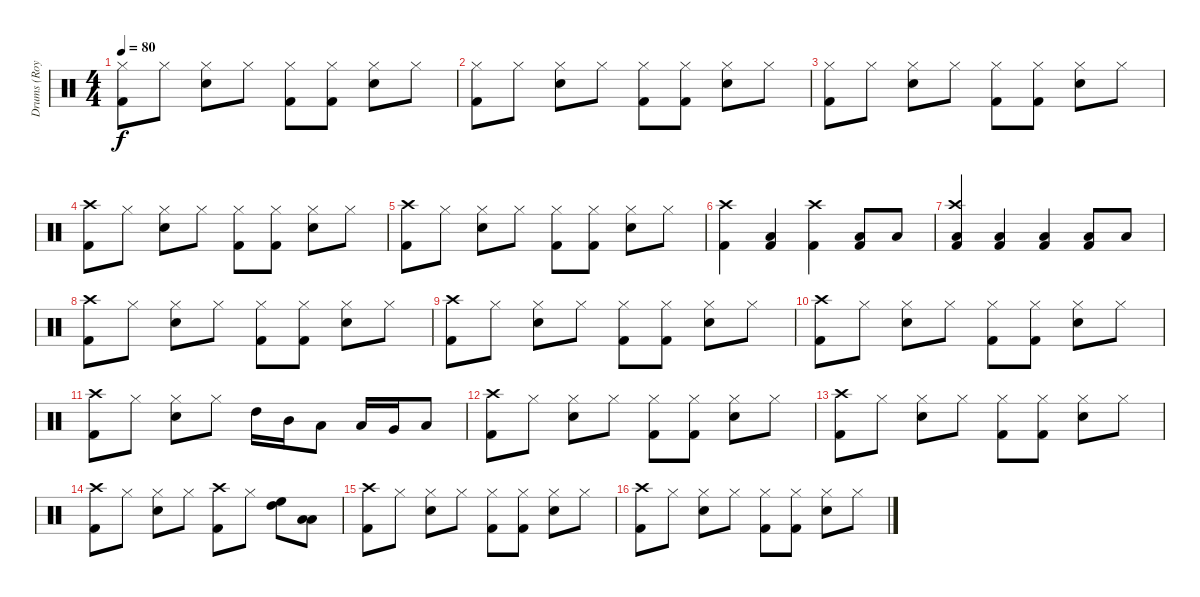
\track ("Drums (Roy Mayorga)" "Drums (Roy") {instrument percussion}
\staff {score}
\articulation defaults
\ts (4 4)
\tempo 80
\clef neutral
\ks c
("Hi-Hat (closed)" "Kick (hit) 2").8{dy f} "Hi-Hat (closed)".8 ("Hi-Hat (closed)" "Snare (hit) 2").8 "Hi-Hat (closed)".8 ("Hi-Hat (closed)" "Kick (hit) 2").8 ("Hi-Hat (closed)" "Kick (hit) 2").8 ("Hi-Hat (closed)" "Snare (hit) 2").8 "Hi-Hat (closed)".8 |
("Hi-Hat (closed)" "Kick (hit) 2").8 "Hi-Hat (closed)".8 ("Hi-Hat (closed)" "Snare (hit) 2").8 "Hi-Hat (closed)".8 ("Hi-Hat (closed)" "Kick (hit) 2").8 ("Hi-Hat (closed)" "Kick (hit) 2").8 ("Hi-Hat (closed)" "Snare (hit) 2").8 "Hi-Hat (closed)".8 |
("Hi-Hat (closed)" "Kick (hit) 2").8 "Hi-Hat (closed)".8 ("Hi-Hat (closed)" "Snare (hit) 2").8 "Hi-Hat (closed)".8 ("Hi-Hat (closed)" "Kick (hit) 2").8 ("Hi-Hat (closed)" "Kick (hit) 2").8 ("Hi-Hat (closed)" "Snare (hit) 2").8 "Hi-Hat (closed)".8 |
("Crash high (hit)" "Kick (hit) 2").8 "Hi-Hat (closed)".8 ("Hi-Hat (closed)" "Snare (hit) 2").8 "Hi-Hat (closed)".8 ("Hi-Hat (closed)" "Kick (hit) 2").8 ("Hi-Hat (closed)" "Kick (hit) 2").8 ("Hi-Hat (closed)" "Snare (hit) 2").8 "Hi-Hat (closed)".8 |
("Crash high (hit)" "Kick (hit) 2").8 "Hi-Hat (closed)".8 ("Hi-Hat (closed)" "Snare (hit) 2").8 "Hi-Hat (closed)".8 ("Hi-Hat (closed)" "Kick (hit) 2").8 ("Hi-Hat (closed)" "Kick (hit) 2").8 ("Hi-Hat (closed)" "Snare (hit) 2").8 "Hi-Hat (closed)".8 |
("Crash high (hit)" "Kick (hit) 2").4 ("Low Tom (hit)" "Kick (hit) 2").4 ("Crash high (hit)" "Kick (hit) 2").4 ("Low Tom (hit)" "Kick (hit) 2").8 "Low Tom (hit)".8 |
("Crash high (hit)" "Low Tom (hit)" "Kick (hit) 2").4 ("Low Tom (hit)" "Kick (hit) 2").4 ("Low Tom (hit)" "Kick (hit) 2").4 ("Low Tom (hit)" "Kick (hit) 2").8 "Low Floor Tom (hit)".8 |
("Crash high (hit)" "Kick (hit) 2").8 "Hi-Hat (closed)".8 ("Hi-Hat (closed)" "Snare (hit) 2").8 "Hi-Hat (closed)".8 ("Hi-Hat (closed)" "Kick (hit) 2").8 ("Hi-Hat (closed)" "Kick (hit) 2").8 ("Hi-Hat (closed)" "Snare (hit) 2").8 "Hi-Hat (closed)".8 |
("Crash high (hit)" "Kick (hit) 2").8 "Hi-Hat (closed)".8 ("Hi-Hat (closed)" "Snare (hit) 2").8 "Hi-Hat (closed)".8 ("Hi-Hat (closed)" "Kick (hit) 2").8 ("Hi-Hat (closed)" "Kick (hit) 2").8 ("Hi-Hat (closed)" "Snare (hit) 2").8 "Hi-Hat (closed)".8 |
("Crash high (hit)" "Kick (hit) 2").8 "Hi-Hat (closed)".8 ("Hi-Hat (closed)" "Snare (hit) 2").8 "Hi-Hat (closed)".8 ("Hi-Hat (closed)" "Kick (hit) 2").8 ("Hi-Hat (closed)" "Kick (hit) 2").8 ("Hi-Hat (closed)" "Snare (hit) 2").8 "Hi-Hat (closed)".8 |
("Crash high (hit)" "Kick (hit) 2").8 "Hi-Hat (closed)".8 ("Hi-Hat (closed)" "Snare (hit) 2").8 "Hi-Hat (closed)".8 "High Tom (hit)".16 "Mid Tom (hit)".16 "Low Tom (hit)".8 "Low Tom (hit)".16 "Very Low Tom (hit)".16 "Low Floor Tom (hit)".8 |
("Crash high (hit)" "Kick (hit) 2").8 "Hi-Hat (closed)".8 ("Hi-Hat (closed)" "Snare (hit) 2").8 "Hi-Hat (closed)".8 ("Hi-Hat (closed)" "Kick (hit) 2").8 ("Hi-Hat (closed)" "Kick (hit) 2").8 ("Hi-Hat (closed)" "Snare (hit) 2").8 "Hi-Hat (closed)".8 |
("Crash high (hit)" "Kick (hit) 2").8 "Hi-Hat (closed)".8 ("Hi-Hat (closed)" "Snare (hit) 2").8 "Hi-Hat (closed)".8 ("Hi-Hat (closed)" "Kick (hit) 2").8 ("Hi-Hat (closed)" "Kick (hit) 2").8 ("Hi-Hat (closed)" "Snare (hit) 2").8 "Hi-Hat (closed)".8 |
("Crash high (hit)" "Kick (hit) 2").8 "Hi-Hat (closed)".8 ("Hi-Hat (closed)" "Snare (hit) 2").8 "Hi-Hat (closed)".8 ("Crash high (hit)" "Kick (hit) 2").8 "Hi-Hat (closed)".8 ("High Floor Tom (hit)" "High Tom (hit)").8 ("Low Tom (hit)" "Low Floor Tom (hit)").8 |
("Crash high (hit)" "Kick (hit) 2").8 "Hi-Hat (closed)".8 ("Hi-Hat (closed)" "Snare (hit) 2").8 "Hi-Hat (closed)".8 ("Hi-Hat (closed)" "Kick (hit) 2").8 ("Hi-Hat (closed)" "Kick (hit) 2").8 ("Hi-Hat (closed)" "Snare (hit) 2").8 "Hi-Hat (closed)".8 |
("Crash high (hit)" "Kick (hit) 2").8 "Hi-Hat (closed)".8 ("Hi-Hat (closed)" "Snare (hit) 2").8 "Hi-Hat (closed)".8 ("Hi-Hat (closed)" "Kick (hit) 2").8 ("Hi-Hat (closed)" "Kick (hit) 2").8 ("Hi-Hat (closed)" "Snare (hit) 2").8 "Hi-Hat (closed)".8
